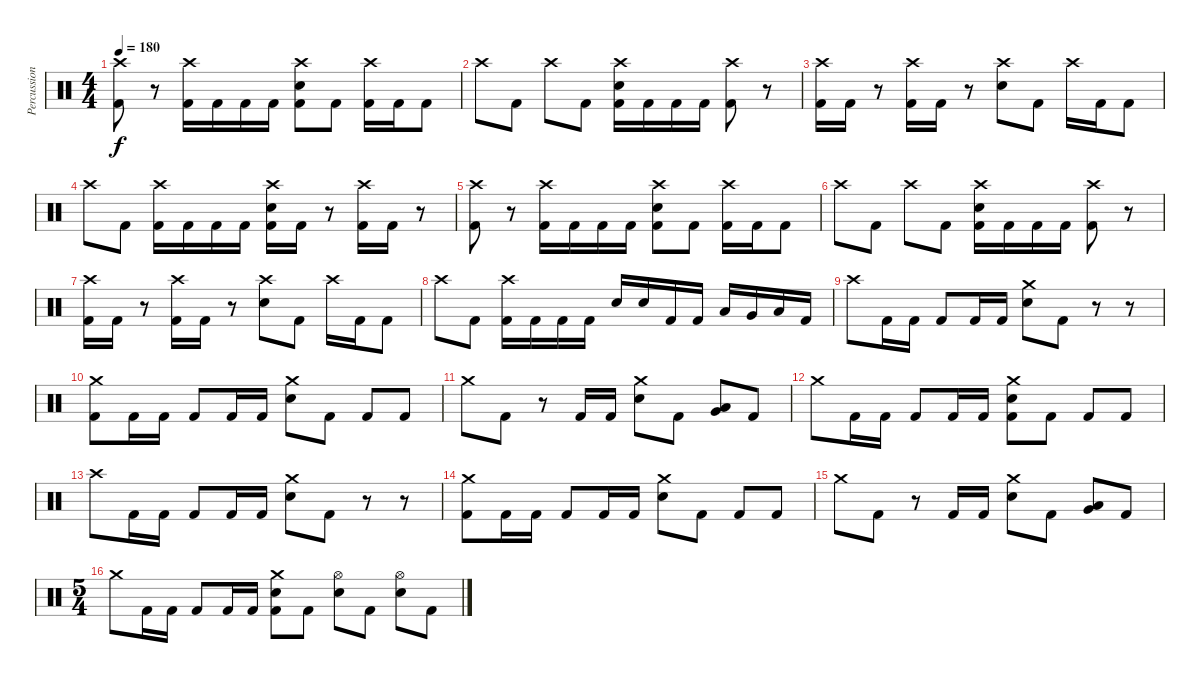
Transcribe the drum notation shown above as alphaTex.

\track ("Percussion" "Percussion") {instrument percussion}
\staff {score}
\articulation defaults
\ts (4 4)
\tempo 180
\clef neutral
\ks c
("Crash high (hit)" "Kick (hit) 2").8{dy f} r.8 ("Crash high (hit)" "Kick (hit) 2").16 "Kick (hit) 2".16 "Kick (hit) 2".16 "Kick (hit) 2".16 ("Crash high (hit)" "Electric Snare (hit)" "Kick (hit) 2").8 "Kick (hit) 2".8 ("Crash high (hit)" "Kick (hit) 2").16 "Kick (hit) 2".16 "Kick (hit) 2".8 |
"Crash high (hit)".8 "Kick (hit) 2".8 "Crash high (hit)".8 "Kick (hit) 2".8 ("Crash high (hit)" "Electric Snare (hit)" "Kick (hit) 2").16 "Kick (hit) 2".16 "Kick (hit) 2".16 "Kick (hit) 2".16 ("Crash high (hit)" "Kick (hit) 2").8 r.8 |
("Crash high (hit)" "Kick (hit) 2").16 "Kick (hit) 2".16 r.8 ("Crash high (hit)" "Kick (hit) 2").16 "Kick (hit) 2".16 r.8 ("Crash high (hit)" "Electric Snare (hit)").8 "Kick (hit) 2".8 "Crash high (hit)".16 "Kick (hit) 2".16 "Kick (hit) 2".8 |
"Crash high (hit)".8 "Kick (hit) 2".8 ("Crash high (hit)" "Kick (hit) 2").16 "Kick (hit) 2".16 "Kick (hit) 2".16 "Kick (hit) 2".16 ("Crash high (hit)" "Electric Snare (hit)" "Kick (hit) 2").16 "Kick (hit) 2".16 r.8 ("Crash high (hit)" "Kick (hit) 2").16 "Kick (hit) 2".16 r.8 |
("Crash high (hit)" "Kick (hit) 2").8 r.8 ("Crash high (hit)" "Kick (hit) 2").16 "Kick (hit) 2".16 "Kick (hit) 2".16 "Kick (hit) 2".16 ("Crash high (hit)" "Electric Snare (hit)" "Kick (hit) 2").8 "Kick (hit) 2".8 ("Crash high (hit)" "Kick (hit) 2").16 "Kick (hit) 2".16 "Kick (hit) 2".8 |
"Crash high (hit)".8 "Kick (hit) 2".8 "Crash high (hit)".8 "Kick (hit) 2".8 ("Crash high (hit)" "Electric Snare (hit)" "Kick (hit) 2").16 "Kick (hit) 2".16 "Kick (hit) 2".16 "Kick (hit) 2".16 ("Crash high (hit)" "Kick (hit) 2").8 r.8 |
("Crash high (hit)" "Kick (hit) 2").16 "Kick (hit) 2".16 r.8 ("Crash high (hit)" "Kick (hit) 2").16 "Kick (hit) 2".16 r.8 ("Crash high (hit)" "Electric Snare (hit)").8 "Kick (hit) 2".8 "Crash high (hit)".16 "Kick (hit) 2".16 "Kick (hit) 2".8 |
"Crash high (hit)".8 "Kick (hit) 2".8 ("Crash high (hit)" "Kick (hit) 2").16 "Kick (hit) 2".16 "Kick (hit) 2".16 "Kick (hit) 2".16 "Electric Snare (hit)".16 "Electric Snare (hit)".16 "Kick (hit) 2".16 "Kick (hit) 2".16 "Low Tom (hit)".16 "Very Low Tom (hit)".16 "Low Floor Tom (hit)".16 "Kick (hit) 2".16 |
"Crash high (hit)".8 "Kick (hit) 2".16 "Kick (hit) 2".16 "Kick (hit) 2".8 "Kick (hit) 2".16 "Kick (hit) 2".16 ("Crash medium (hit)" "Electric Snare (hit)").8 "Kick (hit) 2".8 r.8 r.8 |
("Crash medium (hit)" "Kick (hit) 2").8 "Kick (hit) 2".16 "Kick (hit) 2".16 "Kick (hit) 2".8 "Kick (hit) 2".16 "Kick (hit) 2".16 ("Crash medium (hit)" "Electric Snare (hit)").8 "Kick (hit) 2".8 "Kick (hit) 2".8 "Kick (hit) 2".8 |
"Crash medium (hit)".8 "Kick (hit) 2".8 r.8 "Kick (hit) 2".16 "Kick (hit) 2".16 ("Crash medium (hit)" "Electric Snare (hit)").8 "Kick (hit) 2".8 ("Very Low Tom (hit)" "Low Tom (hit)").8 "Kick (hit) 2".8 |
"Crash medium (hit)".8 "Kick (hit) 2".16 "Kick (hit) 2".16 "Kick (hit) 2".8 "Kick (hit) 2".16 "Kick (hit) 2".16 ("Crash medium (hit)" "Electric Snare (hit)" "Kick (hit) 2").8 "Kick (hit) 2".8 "Kick (hit) 2".8 "Kick (hit) 2".8 |
"Crash high (hit)".8 "Kick (hit) 2".16 "Kick (hit) 2".16 "Kick (hit) 2".8 "Kick (hit) 2".16 "Kick (hit) 2".16 ("Crash medium (hit)" "Electric Snare (hit)").8 "Kick (hit) 2".8 r.8 r.8 |
("Crash medium (hit)" "Kick (hit) 2").8 "Kick (hit) 2".16 "Kick (hit) 2".16 "Kick (hit) 2".8 "Kick (hit) 2".16 "Kick (hit) 2".16 ("Crash medium (hit)" "Electric Snare (hit)").8 "Kick (hit) 2".8 "Kick (hit) 2".8 "Kick (hit) 2".8 |
"Crash medium (hit)".8 "Kick (hit) 2".8 r.8 "Kick (hit) 2".16 "Kick (hit) 2".16 ("Crash medium (hit)" "Electric Snare (hit)").8 "Kick (hit) 2".8 ("Very Low Tom (hit)" "Low Tom (hit)").8 "Kick (hit) 2".8 |
\ts (5 4)
"Crash medium (hit)".8 "Kick (hit) 2".16 "Kick (hit) 2".16 "Kick (hit) 2".8 "Kick (hit) 2".16 "Kick (hit) 2".16 ("Crash medium (hit)" "Electric Snare (hit)" "Kick (hit) 2").8 "Kick (hit) 2".8 ("Hi-Hat (open)" "Electric Snare (hit)").8 "Kick (hit) 2".8 ("Hi-Hat (open)" "Electric Snare (hit)").8 "Kick (hit) 2".8
